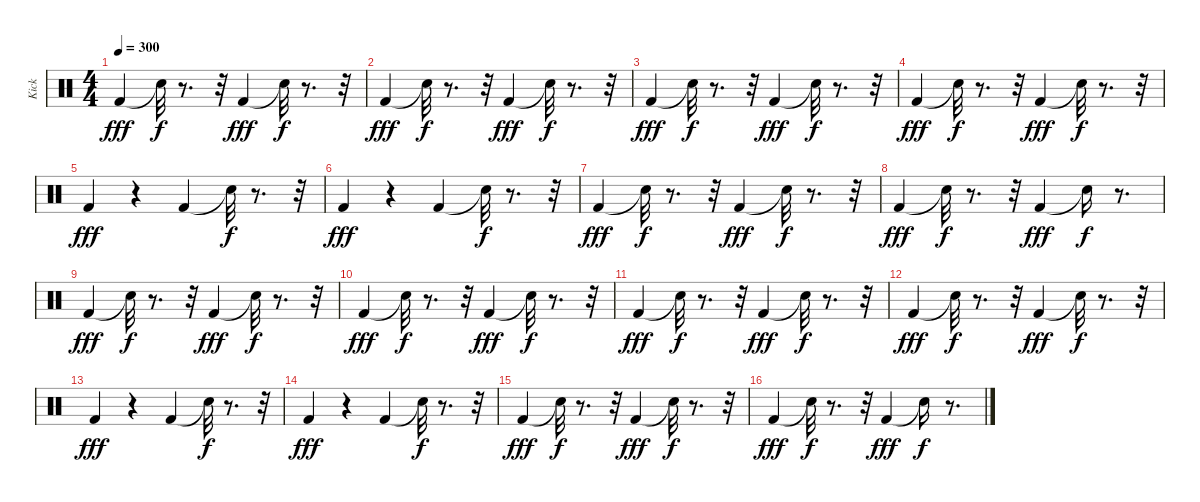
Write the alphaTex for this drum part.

\track ("Kick" "Kick") {instrument percussion}
\staff {score}
\articulation defaults
\ts (4 4)
\tempo 300
\clef neutral
\ks c "Kick (hit) 2".4{dy fff} "Snare (hit)"{t}.32{dy f}
r.8{d} r.32 "Kick (hit) 2".4{dy fff} "Snare (hit)"{t}.32{dy f} r.8{d} r.32 |
"Kick (hit) 2".4{dy fff} "Snare (hit)"{t}.32{dy f} r.8{d} r.32 "Kick (hit) 2".4{dy fff} "Snare (hit)"{t}.32{dy f} r.8{d} r.32 |
"Kick (hit) 2".4{dy fff} "Snare (hit)"{t}.32{dy f} r.8{d} r.32 "Kick (hit) 2".4{dy fff} "Snare (hit)"{t}.32{dy f} r.8{d} r.32 |
"Kick (hit) 2".4{dy fff} "Snare (hit)"{t}.32{dy f} r.8{d} r.32 "Kick (hit) 2".4{dy fff} "Snare (hit)"{t}.32{dy f} r.8{d} r.32 |
"Kick (hit) 2".4{dy fff} r.4 "Kick (hit) 2".4 "Snare (hit)"{t}.32{dy f} r.8{d} r.32 |
"Kick (hit) 2".4{dy fff} r.4 "Kick (hit) 2".4 "Snare (hit)"{t}.32{dy f} r.8{d} r.32 |
"Kick (hit) 2".4{dy fff} "Snare (hit)"{t}.32{dy f} r.8{d} r.32 "Kick (hit) 2".4{dy fff} "Snare (hit)"{t}.32{dy f} r.8{d} r.32 |
"Kick (hit) 2".4{dy fff} "Snare (hit)"{t}.32{dy f} r.8{d} r.32 "Kick (hit) 2".4{dy fff} "Snare (hit)"{t}.16{dy f} r.8{d} |
"Kick (hit) 2".4{dy fff} "Snare (hit)"{t}.32{dy f} r.8{d} r.32 "Kick (hit) 2".4{dy fff} "Snare (hit)"{t}.32{dy f} r.8{d} r.32 |
"Kick (hit) 2".4{dy fff} "Snare (hit)"{t}.32{dy f} r.8{d} r.32 "Kick (hit) 2".4{dy fff} "Snare (hit)"{t}.32{dy f} r.8{d} r.32 |
"Kick (hit) 2".4{dy fff} "Snare (hit)"{t}.32{dy f} r.8{d} r.32 "Kick (hit) 2".4{dy fff} "Snare (hit)"{t}.32{dy f} r.8{d} r.32 |
"Kick (hit) 2".4{dy fff} "Snare (hit)"{t}.32{dy f} r.8{d} r.32 "Kick (hit) 2".4{dy fff} "Snare (hit)"{t}.32{dy f} r.8{d} r.32 |
"Kick (hit) 2".4{dy fff} r.4 "Kick (hit) 2".4 "Snare (hit)"{t}.32{dy f} r.8{d} r.32 |
"Kick (hit) 2".4{dy fff} r.4 "Kick (hit) 2".4 "Snare (hit)"{t}.32{dy f} r.8{d} r.32 |
"Kick (hit) 2".4{dy fff} "Snare (hit)"{t}.32{dy f} r.8{d} r.32 "Kick (hit) 2".4{dy fff} "Snare (hit)"{t}.32{dy f} r.8{d} r.32 |
"Kick (hit) 2".4{dy fff} "Snare (hit)"{t}.32{dy f} r.8{d} r.32 "Kick (hit) 2".4{dy fff} "Snare (hit)"{t}.16{dy f} r.8{d}
